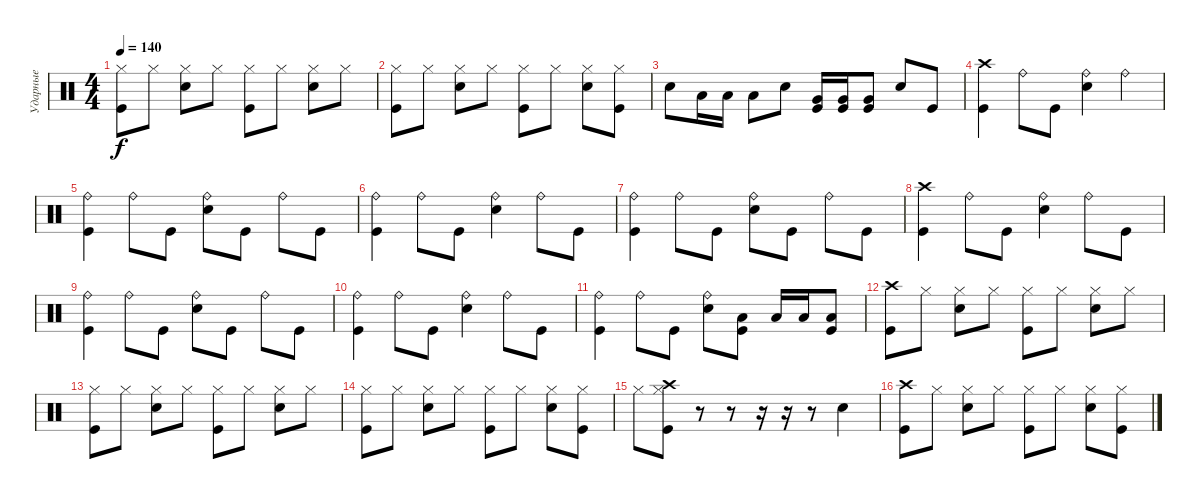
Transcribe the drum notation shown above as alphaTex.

\track ("Ударные" "Ударные") {instrument percussion}
\staff {score}
\articulation defaults
\ts (4 4)
\tempo 140
\clef neutral
\ks c
("Hi-Hat (closed)" "Kick (hit)").8{dy f} "Hi-Hat (closed)".8 ("Hi-Hat (closed)" "Electric Snare (hit)").8 "Hi-Hat (closed)".8 ("Hi-Hat (closed)" "Kick (hit)").8 "Hi-Hat (closed)".8 ("Hi-Hat (closed)" "Electric Snare (hit)").8 "Hi-Hat (closed)".8 |
("Hi-Hat (closed)" "Kick (hit)").8 "Hi-Hat (closed)".8 ("Hi-Hat (closed)" "Electric Snare (hit)").8 "Hi-Hat (closed)".8 ("Hi-Hat (closed)" "Kick (hit)").8 "Hi-Hat (closed)".8 ("Hi-Hat (closed)" "Electric Snare (hit)").8 ("Hi-Hat (closed)" "Kick (hit)").8 |
"Electric Snare (hit)".8 "Low Tom (hit)".16 "Low Tom (hit)".16 "Low Tom (hit)".8 "Electric Snare (hit)".8 ("Very Low Tom (hit)" "Kick (hit)").16 ("Very Low Tom (hit)" "Kick (hit)").16 ("Very Low Tom (hit)" "Kick (hit)").8 "Electric Snare (hit)".8 "Kick (hit)".8 |
("Crash high (hit)" "Kick (hit)").4 "Ride (bell)".8 "Kick (hit)".8 ("Ride (bell)" "Electric Snare (hit)").4 "Ride (bell)".4 |
("Ride (bell)" "Kick (hit)").4 "Ride (bell)".8 "Kick (hit)".8 ("Ride (bell)" "Electric Snare (hit)").8 "Kick (hit)".8 "Ride (bell)".8 "Kick (hit)".8 |
("Ride (bell)" "Kick (hit)").4 "Ride (bell)".8 "Kick (hit)".8 ("Ride (bell)" "Electric Snare (hit)").4 "Ride (bell)".8 "Kick (hit)".8 |
("Ride (bell)" "Kick (hit)").4 "Ride (bell)".8 "Kick (hit)".8 ("Ride (bell)" "Electric Snare (hit)").8 "Kick (hit)".8 "Ride (bell)".8 "Kick (hit)".8 |
("Crash high (hit)" "Kick (hit)").4 "Ride (bell)".8 "Kick (hit)".8 ("Ride (bell)" "Electric Snare (hit)").4 "Ride (bell)".8 "Kick (hit)".8 |
("Ride (bell)" "Kick (hit)").4 "Ride (bell)".8 "Kick (hit)".8 ("Ride (bell)" "Electric Snare (hit)").8 "Kick (hit)".8 "Ride (bell)".8 "Kick (hit)".8 |
("Ride (bell)" "Kick (hit)").4 "Ride (bell)".8 "Kick (hit)".8 ("Ride (bell)" "Electric Snare (hit)").4 "Ride (bell)".8 "Kick (hit)".8 |
("Ride (bell)" "Kick (hit)").4 "Ride (bell)".8 "Kick (hit)".8 ("Ride (bell)" "Electric Snare (hit)").8 ("Low Tom (hit)" "Kick (hit)").8 "Low Tom (hit)".16 "Low Tom (hit)".16 ("Low Tom (hit)" "Kick (hit)").8 |
("Crash high (hit)" "Kick (hit)").8 "Hi-Hat (closed)".8 ("Hi-Hat (closed)" "Electric Snare (hit)").8 "Hi-Hat (closed)".8 ("Hi-Hat (closed)" "Kick (hit)").8 "Hi-Hat (closed)".8 ("Hi-Hat (closed)" "Electric Snare (hit)").8 "Hi-Hat (closed)".8 |
("Hi-Hat (closed)" "Kick (hit)").8 "Hi-Hat (closed)".8 ("Hi-Hat (closed)" "Electric Snare (hit)").8 "Hi-Hat (closed)".8 ("Hi-Hat (closed)" "Kick (hit)").8 "Hi-Hat (closed)".8 ("Hi-Hat (closed)" "Electric Snare (hit)").8 "Hi-Hat (closed)".8 |
("Hi-Hat (closed)" "Kick (hit)").8 "Hi-Hat (closed)".8 ("Hi-Hat (closed)" "Electric Snare (hit)").8 "Hi-Hat (closed)".8 ("Hi-Hat (closed)" "Kick (hit)").8 "Hi-Hat (closed)".8 ("Hi-Hat (closed)" "Electric Snare (hit)").8 ("Hi-Hat (closed)" "Kick (hit)").8 |
"Hi-Hat (closed)".8 ("Crash high (hit)" "Hi-Hat (closed)" "Kick (hit)").8 r.8 r.8 r.16 r.16 r.8 "Electric Snare (hit)".4 |
("Crash high (hit)" "Kick (hit)").8 "Hi-Hat (closed)".8 ("Hi-Hat (closed)" "Electric Snare (hit)").8 "Hi-Hat (closed)".8 ("Hi-Hat (closed)" "Kick (hit)").8 "Hi-Hat (closed)".8 ("Hi-Hat (closed)" "Electric Snare (hit)").8 ("Hi-Hat (closed)" "Kick (hit)").8
